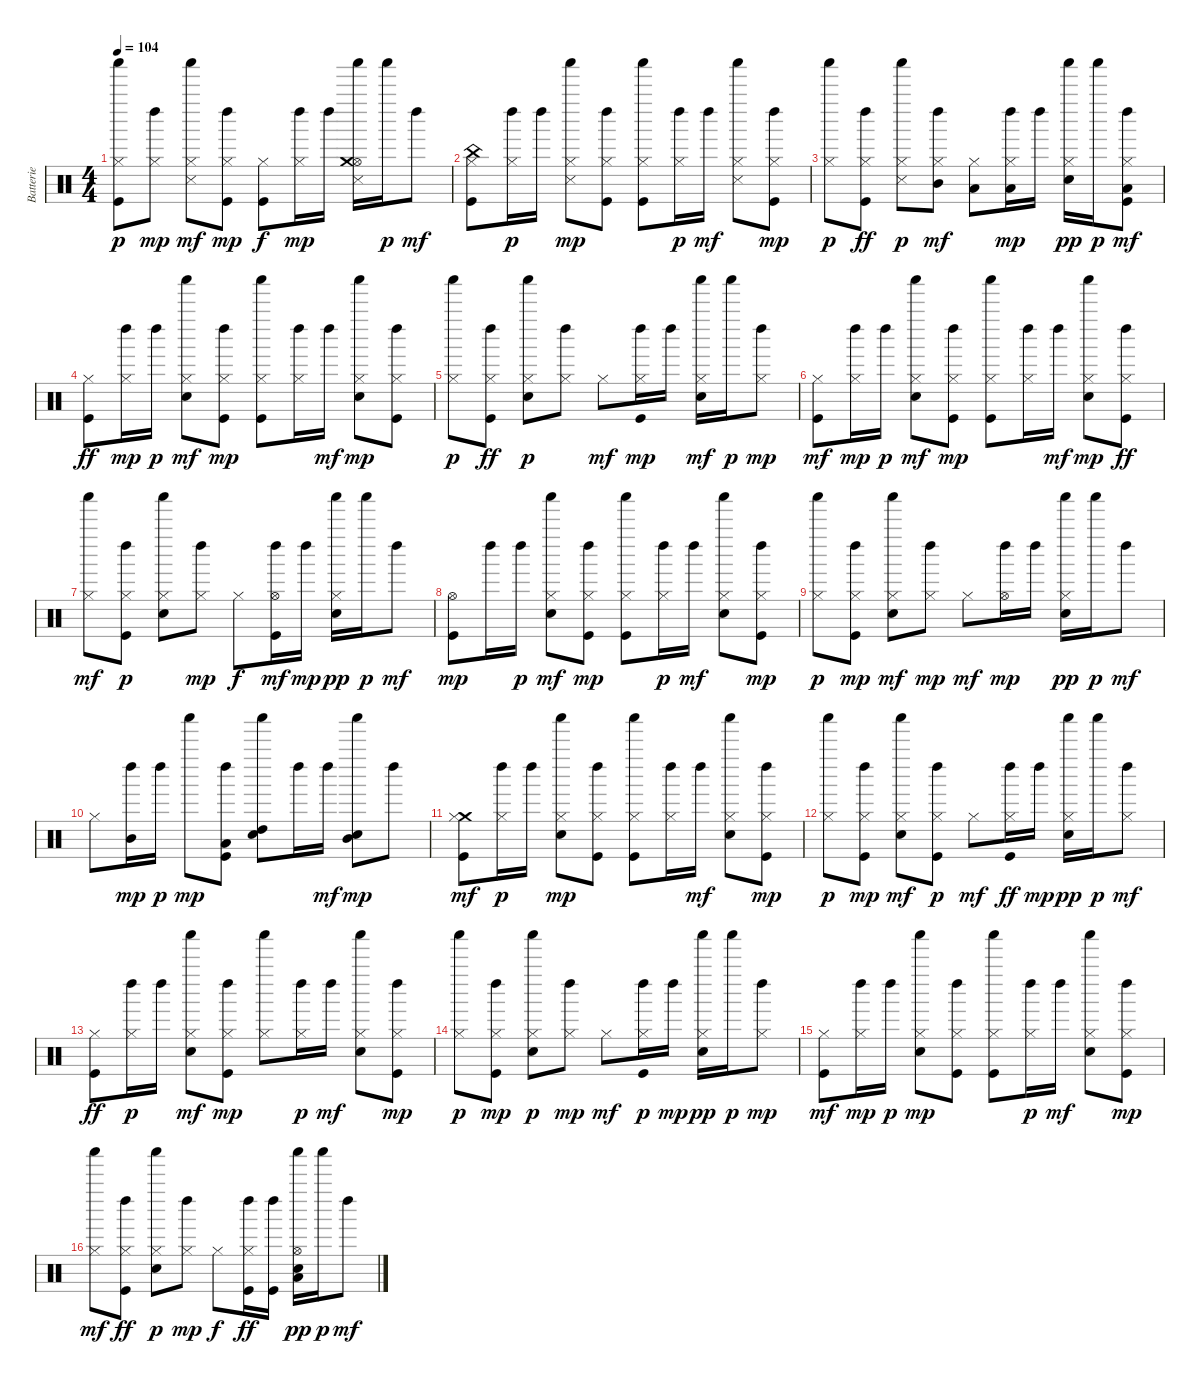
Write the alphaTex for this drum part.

\track ("Batterie" "Batterie") {instrument percussion}
\staff {score}
\articulation defaults
\ts (4 4)
\tempo 104
\clef neutral
\ks c
("Hi-Hat (closed)" "Kick (hit)" "Shaker (hit)").8{dy p} ("Hi-Hat (closed)" "Left Maraca (hit)").8{dy mp} ("Shaker (hit)" "Hi-Hat (closed)" "Snare (side stick) 3").8{dy mf} ("Hi-Hat (closed)" "Kick (hit)" "Left Maraca (hit)").8{dy mp} ("Hi-Hat (closed)" "Kick (hit)").8{dy f} ("Hi-Hat (closed)" "Left Maraca (hit)").16{dy mp} "Left Maraca (hit)".16 ("Hi-Hat (open)" "Shaker (hit)" "Snare (side stick) 3" "Crash medium (hit)").16 "Shaker (hit)".16{dy p} "Left Maraca (hit)".8{dy mf} |
("Kick (hit)" "China (hit)" "Hi-Hat (closed)").8 ("Left Maraca (hit)" "Hi-Hat (closed)").16{dy p} "Left Maraca (hit)".16 ("Hi-Hat (closed)" "Snare (side stick) 3" "Shaker (hit)").8{dy mp} ("Hi-Hat (closed)" "Left Maraca (hit)" "Kick (hit)").8 ("Hi-Hat (closed)" "Kick (hit)" "Shaker (hit)").8 ("Left Maraca (hit)" "Hi-Hat (closed)").16{dy p} "Left Maraca (hit)".16{dy mf} ("Shaker (hit)" "Snare (side stick) 3" "Hi-Hat (closed)").8 ("Kick (hit)" "Left Maraca (hit)" "Hi-Hat (closed)").8{dy mp} |
("Hi-Hat (closed)" "Shaker (hit)").8{dy p} ("Hi-Hat (closed)" "Left Maraca (hit)" "Kick (hit)").8{dy ff} ("Hi-Hat (closed)" "Snare (side stick) 3" "Shaker (hit)").8{dy p} ("Left Maraca (hit)" "Hi-Hat (closed)" "Mid Tom (hit)").8{dy mf} ("Low Tom (hit)" "Hi-Hat (closed)").8 ("Low Tom (hit)" "Hi-Hat (closed)" "Left Maraca (hit)").16{dy mp} "Left Maraca (hit)".16 ("Hi-Hat (closed)" "Electric Snare (hit)" "Shaker (hit)").16{dy pp} "Shaker (hit)".16{dy p} ("Kick (hit)" "Hi-Hat (closed)" "Left Maraca (hit)" "Low Tom (hit)").8{dy mf} |
("Hi-Hat (closed)" "Kick (hit)").8{dy ff} ("Hi-Hat (closed)" "Left Maraca (hit)").16{dy mp} "Left Maraca (hit)".16{dy p} ("Shaker (hit)" "Hi-Hat (closed)" "Electric Snare (hit)").8{dy mf} ("Left Maraca (hit)" "Kick (hit)" "Hi-Hat (closed)").8{dy mp} ("Hi-Hat (closed)" "Shaker (hit)" "Kick (hit)").8 ("Hi-Hat (closed)" "Left Maraca (hit)").16 "Left Maraca (hit)".16{dy mf} ("Hi-Hat (closed)" "Electric Snare (hit)" "Shaker (hit)").8{dy mp} ("Kick (hit)" "Hi-Hat (closed)" "Left Maraca (hit)").8 |
("Shaker (hit)" "Hi-Hat (closed)").8{dy p} ("Hi-Hat (closed)" "Left Maraca (hit)" "Kick (hit)").8{dy ff} ("Hi-Hat (closed)" "Electric Snare (hit)" "Shaker (hit)").8{dy p} ("Left Maraca (hit)" "Hi-Hat (closed)").8 "Hi-Hat (closed)".8{dy mf} ("Hi-Hat (closed)" "Kick (hit)" "Left Maraca (hit)").16{dy mp} "Left Maraca (hit)".16 ("Electric Snare (hit)" "Shaker (hit)" "Hi-Hat (closed)").16{dy mf} "Shaker (hit)".16{dy p} ("Left Maraca (hit)" "Hi-Hat (closed)").8{dy mp} |
("Kick (hit)" "Hi-Hat (closed)").8{dy mf} ("Hi-Hat (closed)" "Left Maraca (hit)").16{dy mp} "Left Maraca (hit)".16{dy p} ("Shaker (hit)" "Hi-Hat (closed)" "Electric Snare (hit)").8{dy mf} ("Left Maraca (hit)" "Kick (hit)" "Hi-Hat (closed)").8{dy mp} ("Kick (hit)" "Hi-Hat (closed)" "Shaker (hit)").8 ("Hi-Hat (closed)" "Left Maraca (hit)").16 "Left Maraca (hit)".16{dy mf} ("Hi-Hat (closed)" "Shaker (hit)" "Electric Snare (hit)").8{dy mp} ("Hi-Hat (closed)" "Left Maraca (hit)" "Kick (hit)").8{dy ff} |
("Shaker (hit)" "Hi-Hat (closed)").8{dy mf} ("Kick (hit)" "Left Maraca (hit)" "Hi-Hat (closed)").8{dy p} ("Electric Snare (hit)" "Hi-Hat (closed)" "Shaker (hit)").8 ("Hi-Hat (closed)" "Left Maraca (hit)").8{dy mp} "Hi-Hat (closed)".8{dy f} ("Left Maraca (hit)" "Kick (hit)" "Hi-Hat (open)").16{dy mf} "Left Maraca (hit)".16{dy mp} ("Hi-Hat (closed)" "Shaker (hit)" "Electric Snare (hit)").16{dy pp} "Shaker (hit)".16{dy p} "Left Maraca (hit)".8{dy mf} |
("Kick (hit)" "Hi-Hat (open)").8{dy mp} "Left Maraca (hit)".16 "Left Maraca (hit)".16{dy p} ("Electric Snare (hit)" "Shaker (hit)" "Hi-Hat (closed)").8{dy mf} ("Left Maraca (hit)" "Kick (hit)" "Hi-Hat (closed)").8{dy mp} ("Hi-Hat (closed)" "Kick (hit)" "Shaker (hit)").8 ("Left Maraca (hit)" "Hi-Hat (closed)").16{dy p} "Left Maraca (hit)".16{dy mf} ("Shaker (hit)" "Electric Snare (hit)" "Hi-Hat (closed)").8 ("Left Maraca (hit)" "Kick (hit)" "Hi-Hat (closed)").8{dy mp} |
("Hi-Hat (closed)" "Shaker (hit)").8{dy p} ("Kick (hit)" "Hi-Hat (closed)" "Left Maraca (hit)").8{dy mp} ("Shaker (hit)" "Hi-Hat (closed)" "Electric Snare (hit)").8{dy mf} ("Hi-Hat (closed)" "Left Maraca (hit)").8{dy mp} "Hi-Hat (closed)".8{dy mf} ("Hi-Hat (open)" "Left Maraca (hit)").16{dy mp} "Left Maraca (hit)".16 ("Hi-Hat (closed)" "Shaker (hit)" "Electric Snare (hit)").16{dy pp} "Shaker (hit)".16{dy p} "Left Maraca (hit)".8{dy mf} |
"Hi-Hat (closed)".8 ("Mid Tom (hit)" "Left Maraca (hit)").16{dy mp} "Left Maraca (hit)".16{dy p} "Shaker (hit)".8{dy mp} ("Left Maraca (hit)" "Low Tom (hit)" "Kick (hit)").8 ("High Tom (hit)" "Electric Snare (hit)" "Shaker (hit)").8 "Left Maraca (hit)".16 "Left Maraca (hit)".16{dy mf} ("Mid Tom (hit)" "Shaker (hit)" "Electric Snare (hit)").8{dy mp} "Left Maraca (hit)".8 |
("Crash medium (hit)" "Kick (hit)" "Hi-Hat (closed)").8{dy mf} ("Left Maraca (hit)" "Hi-Hat (closed)").16{dy p} "Left Maraca (hit)".16 ("Hi-Hat (closed)" "Electric Snare (hit)" "Shaker (hit)").8{dy mp} ("Left Maraca (hit)" "Hi-Hat (closed)" "Kick (hit)").8 ("Hi-Hat (closed)" "Kick (hit)" "Shaker (hit)").8 ("Hi-Hat (closed)" "Left Maraca (hit)").16 "Left Maraca (hit)".16{dy mf} ("Electric Snare (hit)" "Shaker (hit)" "Hi-Hat (closed)").8 ("Hi-Hat (closed)" "Kick (hit)" "Left Maraca (hit)").8{dy mp} |
("Hi-Hat (closed)" "Shaker (hit)").8{dy p} ("Kick (hit)" "Left Maraca (hit)" "Hi-Hat (closed)").8{dy mp} ("Shaker (hit)" "Hi-Hat (closed)" "Electric Snare (hit)").8{dy mf} ("Left Maraca (hit)" "Kick (hit)" "Hi-Hat (closed)").8{dy p} "Hi-Hat (closed)".8{dy mf} ("Hi-Hat (closed)" "Left Maraca (hit)" "Kick (hit)").16{dy ff} "Left Maraca (hit)".16{dy mp} ("Hi-Hat (closed)" "Electric Snare (hit)" "Shaker (hit)").16{dy pp} "Shaker (hit)".16{dy p} ("Hi-Hat (closed)" "Left Maraca (hit)").8{dy mf} |
("Hi-Hat (closed)" "Kick (hit)").8{dy ff} ("Left Maraca (hit)" "Hi-Hat (closed)").16{dy p} "Left Maraca (hit)".16 ("Shaker (hit)" "Electric Snare (hit)" "Hi-Hat (closed)").8{dy mf} ("Hi-Hat (closed)" "Left Maraca (hit)" "Kick (hit)").8{dy mp} ("Hi-Hat (closed)" "Shaker (hit)").8 ("Left Maraca (hit)" "Hi-Hat (closed)").16{dy p} "Left Maraca (hit)".16{dy mf} ("Shaker (hit)" "Hi-Hat (closed)" "Electric Snare (hit)").8 ("Kick (hit)" "Left Maraca (hit)" "Hi-Hat (closed)").8{dy mp} |
("Hi-Hat (closed)" "Shaker (hit)").8{dy p} ("Left Maraca (hit)" "Kick (hit)" "Hi-Hat (closed)").8{dy mp} ("Hi-Hat (closed)" "Shaker (hit)" "Electric Snare (hit)").8{dy p} ("Hi-Hat (closed)" "Left Maraca (hit)").8{dy mp} "Hi-Hat (closed)".8{dy mf} ("Left Maraca (hit)" "Kick (hit)" "Hi-Hat (closed)").16{dy p} "Left Maraca (hit)".16{dy mp} ("Electric Snare (hit)" "Hi-Hat (closed)" "Shaker (hit)").16{dy pp} "Shaker (hit)".16{dy p} ("Left Maraca (hit)" "Hi-Hat (closed)").8{dy mp} |
("Kick (hit)" "Hi-Hat (closed)").8{dy mf} ("Hi-Hat (closed)" "Left Maraca (hit)").16{dy mp} "Left Maraca (hit)".16{dy p} ("Hi-Hat (closed)" "Shaker (hit)" "Electric Snare (hit)").8{dy mp} ("Hi-Hat (closed)" "Left Maraca (hit)" "Kick (hit)").8 ("Shaker (hit)" "Kick (hit)" "Hi-Hat (closed)").8 ("Left Maraca (hit)" "Hi-Hat (closed)").16{dy p} "Left Maraca (hit)".16{dy mf} ("Shaker (hit)" "Hi-Hat (closed)" "Electric Snare (hit)").8 ("Left Maraca (hit)" "Kick (hit)" "Hi-Hat (closed)").8{dy mp} |
("Shaker (hit)" "Hi-Hat (closed)").8{dy mf} ("Hi-Hat (closed)" "Left Maraca (hit)" "Kick (hit)").8{dy ff} ("Electric Snare (hit)" "Hi-Hat (closed)" "Shaker (hit)").8{dy p} ("Left Maraca (hit)" "Hi-Hat (closed)").8{dy mp} "Hi-Hat (closed)".8{dy f} ("Left Maraca (hit)" "Hi-Hat (closed)" "Kick (hit)").16{dy ff} ("Left Maraca (hit)" "Kick (hit)").16 ("Hi-Hat (open)" "Shaker (hit)" "Electric Snare (hit)" "Low Tom (hit)").16{dy pp} "Shaker (hit)".16{dy p} "Left Maraca (hit)".8{dy mf}
